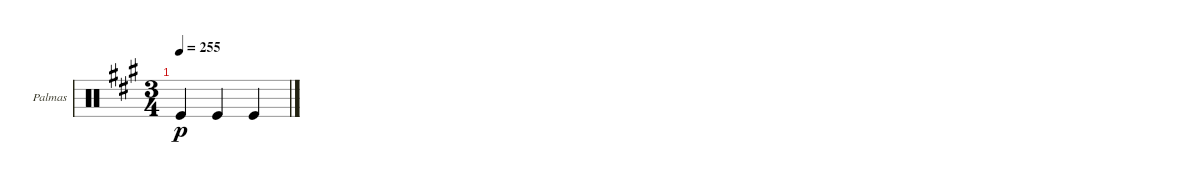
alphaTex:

\defaultSystemsLayout 4
\bracketExtendMode groupsimilarinstruments
\firstSystemTrackNameOrientation horizontal
\otherSystemsTrackNameOrientation horizontal
\track ("Palmas" "Palmas") {instrument percussion}
\staff {score}
\articulation defaults
\ts (3 4)
\tempo 255
\clef neutral
\scale
0.333333
\ks a "Kick (hit)".4{dy p} "Kick (hit)".4 "Kick (hit)".4
